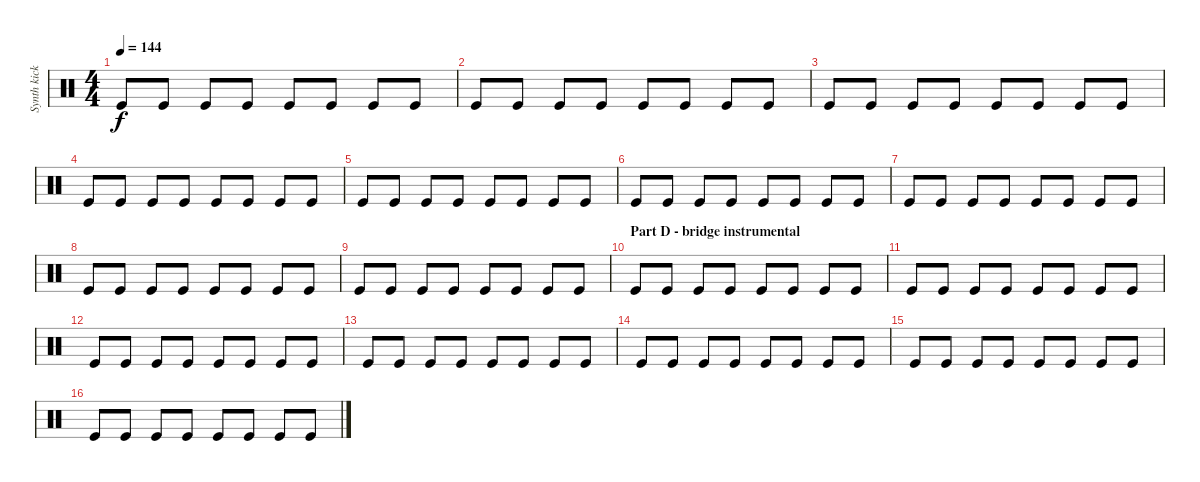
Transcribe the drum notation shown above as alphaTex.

\track ("Synth kick loop" "Synth kick") {instrument percussion}
\staff {score}
\articulation defaults
\ts (4 4)
\tempo 144
\clef neutral
\ks c "Kick (hit)".8{dy f} "Kick (hit)".8 "Kick (hit)".8 "Kick (hit)".8 "Kick (hit)".8 "Kick (hit)".8 "Kick (hit)".8 "Kick (hit)".8
|
"Kick (hit)".8 "Kick (hit)".8 "Kick (hit)".8 "Kick (hit)".8 "Kick (hit)".8 "Kick (hit)".8 "Kick (hit)".8 "Kick (hit)".8 |
"Kick (hit)".8 "Kick (hit)".8 "Kick (hit)".8 "Kick (hit)".8 "Kick (hit)".8 "Kick (hit)".8 "Kick (hit)".8 "Kick (hit)".8 |
"Kick (hit)".8 "Kick (hit)".8 "Kick (hit)".8 "Kick (hit)".8 "Kick (hit)".8 "Kick (hit)".8 "Kick (hit)".8 "Kick (hit)".8 |
"Kick (hit)".8 "Kick (hit)".8 "Kick (hit)".8 "Kick (hit)".8 "Kick (hit)".8 "Kick (hit)".8 "Kick (hit)".8 "Kick (hit)".8 |
"Kick (hit)".8 "Kick (hit)".8 "Kick (hit)".8 "Kick (hit)".8 "Kick (hit)".8 "Kick (hit)".8 "Kick (hit)".8 "Kick (hit)".8 |
"Kick (hit)".8 "Kick (hit)".8 "Kick (hit)".8 "Kick (hit)".8 "Kick (hit)".8 "Kick (hit)".8 "Kick (hit)".8 "Kick (hit)".8 |
"Kick (hit)".8 "Kick (hit)".8 "Kick (hit)".8 "Kick (hit)".8 "Kick (hit)".8 "Kick (hit)".8 "Kick (hit)".8 "Kick (hit)".8 |
"Kick (hit)".8 "Kick (hit)".8 "Kick (hit)".8 "Kick (hit)".8 "Kick (hit)".8 "Kick (hit)".8 "Kick (hit)".8 "Kick (hit)".8 |
\section ("" "Part D - bridge instrumental")
"Kick (hit)".8 "Kick (hit)".8 "Kick (hit)".8 "Kick (hit)".8 "Kick (hit)".8 "Kick (hit)".8 "Kick (hit)".8 "Kick (hit)".8 |
"Kick (hit)".8 "Kick (hit)".8 "Kick (hit)".8 "Kick (hit)".8 "Kick (hit)".8 "Kick (hit)".8 "Kick (hit)".8 "Kick (hit)".8 |
"Kick (hit)".8 "Kick (hit)".8 "Kick (hit)".8 "Kick (hit)".8 "Kick (hit)".8 "Kick (hit)".8 "Kick (hit)".8 "Kick (hit)".8 |
"Kick (hit)".8 "Kick (hit)".8 "Kick (hit)".8 "Kick (hit)".8 "Kick (hit)".8 "Kick (hit)".8 "Kick (hit)".8 "Kick (hit)".8 |
"Kick (hit)".8 "Kick (hit)".8 "Kick (hit)".8 "Kick (hit)".8 "Kick (hit)".8 "Kick (hit)".8 "Kick (hit)".8 "Kick (hit)".8 |
"Kick (hit)".8 "Kick (hit)".8 "Kick (hit)".8 "Kick (hit)".8 "Kick (hit)".8 "Kick (hit)".8 "Kick (hit)".8 "Kick (hit)".8 |
"Kick (hit)".8 "Kick (hit)".8 "Kick (hit)".8 "Kick (hit)".8 "Kick (hit)".8 "Kick (hit)".8 "Kick (hit)".8 "Kick (hit)".8
